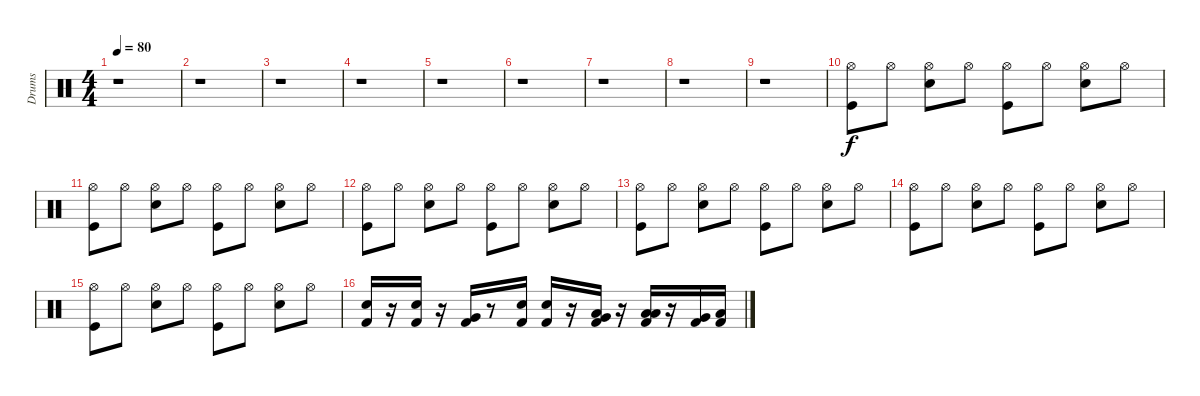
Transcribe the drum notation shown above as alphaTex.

\track ("Drums" "Drums") {instrument percussion}
\staff {score}
\articulation defaults
\ts (4 4)
\tempo 80
\clef neutral
\ks c
r.1{dy f} |
r.1 |
r.1 |
r.1 |
r.1 |
r.1 |
r.1 |
r.1 |
r.1 |
("Hi-Hat (open)" "Kick (hit)").8 "Hi-Hat (open)".8 ("Snare (hit) 2" "Hi-Hat (open)").8 "Hi-Hat (open)".8 ("Hi-Hat (open)" "Kick (hit)").8 "Hi-Hat (open)".8 ("Snare (hit) 2" "Hi-Hat (open)").8 "Hi-Hat (open)".8 |
("Hi-Hat (open)" "Kick (hit)").8 "Hi-Hat (open)".8 ("Snare (hit) 2" "Hi-Hat (open)").8 "Hi-Hat (open)".8 ("Hi-Hat (open)" "Kick (hit)").8 "Hi-Hat (open)".8 ("Snare (hit) 2" "Hi-Hat (open)").8 "Hi-Hat (open)".8 |
("Hi-Hat (open)" "Kick (hit)").8 "Hi-Hat (open)".8 ("Snare (hit) 2" "Hi-Hat (open)").8 "Hi-Hat (open)".8 ("Hi-Hat (open)" "Kick (hit)").8 "Hi-Hat (open)".8 ("Snare (hit) 2" "Hi-Hat (open)").8 "Hi-Hat (open)".8 |
("Hi-Hat (open)" "Kick (hit)").8 "Hi-Hat (open)".8 ("Snare (hit) 2" "Hi-Hat (open)").8 "Hi-Hat (open)".8 ("Hi-Hat (open)" "Kick (hit)").8 "Hi-Hat (open)".8 ("Snare (hit) 2" "Hi-Hat (open)").8 "Hi-Hat (open)".8 |
("Hi-Hat (open)" "Kick (hit)").8 "Hi-Hat (open)".8 ("Snare (hit) 2" "Hi-Hat (open)").8 "Hi-Hat (open)".8 ("Hi-Hat (open)" "Kick (hit)").8 "Hi-Hat (open)".8 ("Snare (hit) 2" "Hi-Hat (open)").8 "Hi-Hat (open)".8 |
("Hi-Hat (open)" "Kick (hit)").8 "Hi-Hat (open)".8 ("Snare (hit) 2" "Hi-Hat (open)").8 "Hi-Hat (open)".8 ("Hi-Hat (open)" "Kick (hit)").8 "Hi-Hat (open)".8 ("Snare (hit) 2" "Hi-Hat (open)").8 "Hi-Hat (open)".8 |
("Snare (hit) 2" "Kick (hit) 2").16 r.16 ("Snare (hit) 2" "Kick (hit) 2").16 r.16 ("Very Low Tom (hit)" "Kick (hit) 2").16 r.8 ("Snare (hit) 2" "Kick (hit) 2").16 ("Snare (hit) 2" "Kick (hit) 2").16 r.16 ("Very Low Tom (hit)" "Low Tom (hit)" "Kick (hit) 2").16 r.16 ("Low Floor Tom (hit)" "Low Tom (hit)" "Kick (hit) 2").16 r.16 ("Very Low Tom (hit)" "Kick (hit) 2").16 ("Low Floor Tom (hit)" "Kick (hit) 2").16
